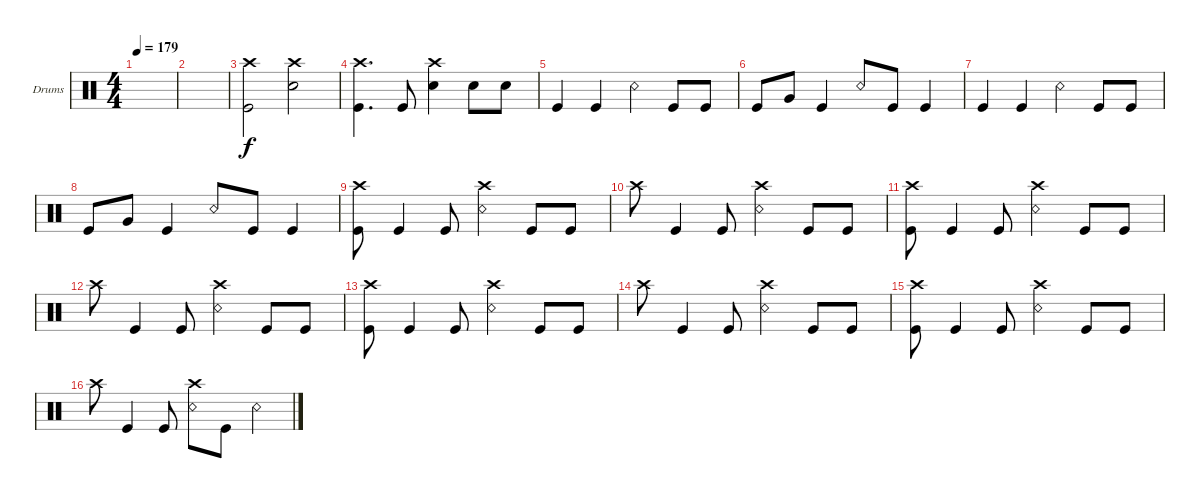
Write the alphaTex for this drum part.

\defaultSystemsLayout 4
\bracketExtendMode groupsimilarinstruments
\firstSystemTrackNameOrientation horizontal
\otherSystemsTrackNameOrientation horizontal
\track ("Drumkit" "Drums") {instrument percussion}
\staff {score}
\articulation defaults
\ts (4 4)
\tempo 179
\clef neutral
\ks c
|
|
("Kick (hit)" "Crash high (hit)").2 ("Snare (hit) 2" "Crash high (hit)").2 |
("Kick (hit)" "Crash high (hit)").4{d} "Kick (hit)".8 ("Snare (hit) 2" "Crash high (hit)").4 "Snare (hit) 2".8 "Snare (hit) 2".8 |
"Kick (hit)".4 "Kick (hit)".4 "Snare (rim shot)".4 "Kick (hit)".8 "Kick (hit)".8 |
"Kick (hit)".8 "Very Low Tom (hit)".8 "Kick (hit)".4 "Snare (rim shot)".8 "Kick (hit)".8 "Kick (hit)".4 |
"Kick (hit)".4 "Kick (hit)".4 "Snare (rim shot)".4 "Kick (hit)".8 "Kick (hit)".8 |
"Kick (hit)".8 "Very Low Tom (hit)".8 "Kick (hit)".4 "Snare (rim shot)".8 "Kick (hit)".8 "Kick (hit)".4 |
("Kick (hit)" "Crash high (hit)").8 "Kick (hit)".4 "Kick (hit)".8 ("Snare (rim shot)" "Crash high (hit)").4 "Kick (hit)".8 "Kick (hit)".8 |
"Crash high (hit)".8 "Kick (hit)".4 "Kick (hit)".8 ("Snare (rim shot)" "Crash high (hit)").4 "Kick (hit)".8 "Kick (hit)".8 |
("Kick (hit)" "Crash high (hit)").8 "Kick (hit)".4 "Kick (hit)".8 ("Snare (rim shot)" "Crash high (hit)").4 "Kick (hit)".8 "Kick (hit)".8 |
"Crash high (hit)".8 "Kick (hit)".4 "Kick (hit)".8 ("Snare (rim shot)" "Crash high (hit)").4 "Kick (hit)".8 "Kick (hit)".8 |
("Kick (hit)" "Crash high (hit)").8 "Kick (hit)".4 "Kick (hit)".8 ("Snare (rim shot)" "Crash high (hit)").4 "Kick (hit)".8 "Kick (hit)".8 |
"Crash high (hit)".8 "Kick (hit)".4 "Kick (hit)".8 ("Snare (rim shot)" "Crash high (hit)").4 "Kick (hit)".8 "Kick (hit)".8 |
("Kick (hit)" "Crash high (hit)").8 "Kick (hit)".4 "Kick (hit)".8 ("Snare (rim shot)" "Crash high (hit)").4 "Kick (hit)".8 "Kick (hit)".8 |
"Crash high (hit)".8 "Kick (hit)".4 "Kick (hit)".8 ("Snare (rim shot)" "Crash high (hit)").8 "Kick (hit)".8 "Snare (rim shot)".4
